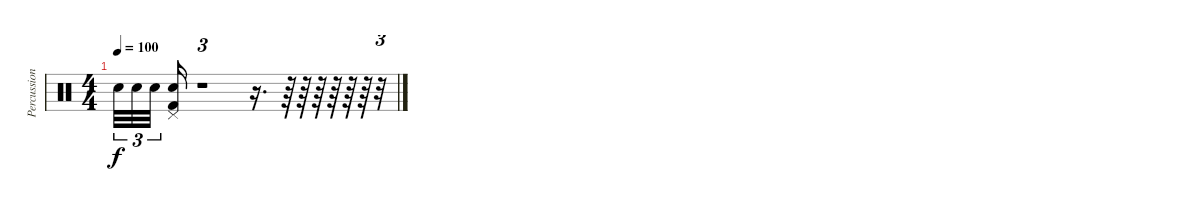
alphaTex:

\track ("Percussions" "Percussion") {instrument percussion}
\staff {score}
\articulation defaults
\ts (4 4)
\tempo 100
\clef neutral
\ks c "Snare (hit) 2".32{tu (3 2) dy f} "Snare (hit) 2".32{tu (3 2)} "Snare (hit) 2".32{tu (3 2) beam splitsecondary}
("Pedal Hi-Hat (hit)" "Snare (hit) 2" "Kick (hit) 2").16 r.1{tu (3 2)} r.16{d} r.64 r.64 r.64 r.64 r.64 r.64 r.32{tu (3 2)}
